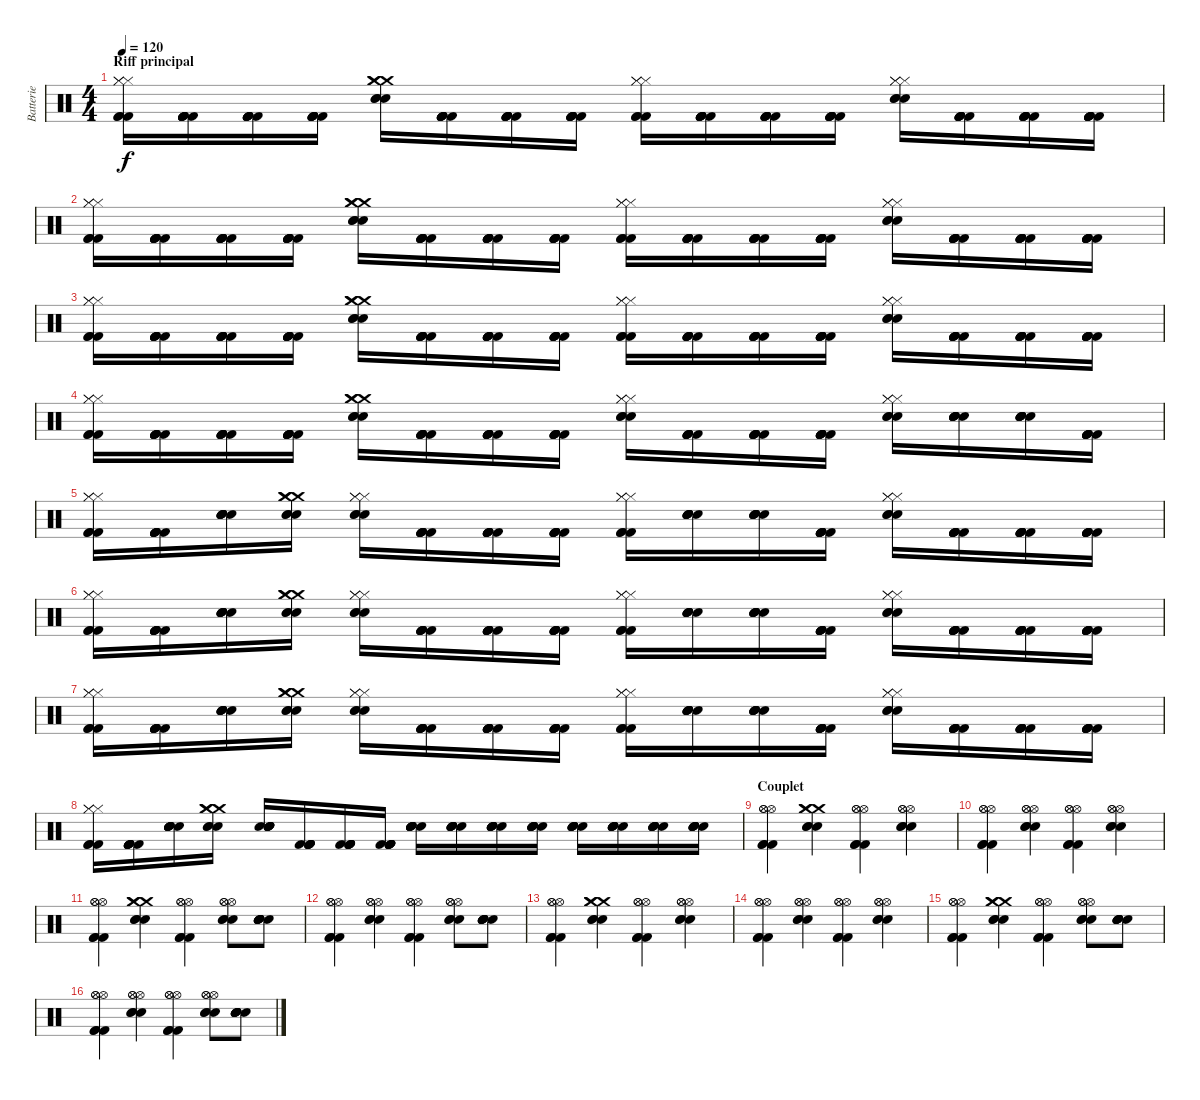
\track ("Batterie" "Batterie") {instrument percussion}
\staff {score}
\articulation defaults
\ts (4 4)
\section ("" "Riff principal")
\tempo 120
\clef neutral
\ks c
("Hi-Hat (closed)" "Hi-Hat (closed)" "Hi-Hat (closed)" "Kick (hit) 2" "Kick (hit) 2" "Kick (hit) 2").16{dy f} ("Kick (hit) 2" "Kick (hit) 2" "Kick (hit) 2" "Kick (hit) 2" "Kick (hit) 2" "Kick (hit) 2").16 ("Kick (hit) 2" "Kick (hit) 2" "Kick (hit) 2" "Kick (hit) 2" "Kick (hit) 2" "Kick (hit) 2").16 ("Kick (hit) 2" "Kick (hit) 2" "Kick (hit) 2" "Kick (hit) 2" "Kick (hit) 2" "Kick (hit) 2").16 ("Crash medium (hit)" "Crash medium (hit)" "Crash medium (hit)" "Snare (hit) 2" "Snare (hit) 2" "Snare (hit) 2").16 ("Kick (hit) 2" "Kick (hit) 2" "Kick (hit) 2" "Kick (hit) 2" "Kick (hit) 2" "Kick (hit) 2").16 ("Kick (hit) 2" "Kick (hit) 2" "Kick (hit) 2" "Kick (hit) 2" "Kick (hit) 2" "Kick (hit) 2").16 ("Kick (hit) 2" "Kick (hit) 2" "Kick (hit) 2" "Kick (hit) 2" "Kick (hit) 2" "Kick (hit) 2").16 ("Kick (hit) 2" "Hi-Hat (closed)" "Hi-Hat (closed)" "Hi-Hat (closed)" "Kick (hit) 2" "Kick (hit) 2").16 ("Kick (hit) 2" "Kick (hit) 2" "Kick (hit) 2" "Kick (hit) 2" "Kick (hit) 2" "Kick (hit) 2").16 ("Kick (hit) 2" "Kick (hit) 2" "Kick (hit) 2" "Kick (hit) 2" "Kick (hit) 2" "Kick (hit) 2").16 ("Kick (hit) 2" "Kick (hit) 2" "Kick (hit) 2" "Kick (hit) 2" "Kick (hit) 2" "Kick (hit) 2").16 ("Snare (hit) 2" "Snare (hit) 2" "Snare (hit) 2" "Hi-Hat (closed)" "Hi-Hat (closed)" "Hi-Hat (closed)").16 ("Kick (hit) 2" "Kick (hit) 2" "Kick (hit) 2" "Kick (hit) 2" "Kick (hit) 2" "Kick (hit) 2").16 ("Kick (hit) 2" "Kick (hit) 2" "Kick (hit) 2" "Kick (hit) 2" "Kick (hit) 2" "Kick (hit) 2").16 ("Kick (hit) 2" "Kick (hit) 2" "Kick (hit) 2" "Kick (hit) 2" "Kick (hit) 2" "Kick (hit) 2").16 |
("Hi-Hat (closed)" "Hi-Hat (closed)" "Hi-Hat (closed)" "Kick (hit) 2" "Kick (hit) 2" "Kick (hit) 2").16 ("Kick (hit) 2" "Kick (hit) 2" "Kick (hit) 2" "Kick (hit) 2" "Kick (hit) 2" "Kick (hit) 2").16 ("Kick (hit) 2" "Kick (hit) 2" "Kick (hit) 2" "Kick (hit) 2" "Kick (hit) 2" "Kick (hit) 2").16 ("Kick (hit) 2" "Kick (hit) 2" "Kick (hit) 2" "Kick (hit) 2" "Kick (hit) 2" "Kick (hit) 2").16 ("Crash medium (hit)" "Crash medium (hit)" "Crash medium (hit)" "Snare (hit) 2" "Snare (hit) 2" "Snare (hit) 2").16 ("Kick (hit) 2" "Kick (hit) 2" "Kick (hit) 2" "Kick (hit) 2" "Kick (hit) 2" "Kick (hit) 2").16 ("Kick (hit) 2" "Kick (hit) 2" "Kick (hit) 2" "Kick (hit) 2" "Kick (hit) 2" "Kick (hit) 2").16 ("Kick (hit) 2" "Kick (hit) 2" "Kick (hit) 2" "Kick (hit) 2" "Kick (hit) 2" "Kick (hit) 2").16 ("Kick (hit) 2" "Hi-Hat (closed)" "Hi-Hat (closed)" "Hi-Hat (closed)" "Kick (hit) 2" "Kick (hit) 2").16 ("Kick (hit) 2" "Kick (hit) 2" "Kick (hit) 2" "Kick (hit) 2" "Kick (hit) 2" "Kick (hit) 2").16 ("Kick (hit) 2" "Kick (hit) 2" "Kick (hit) 2" "Kick (hit) 2" "Kick (hit) 2" "Kick (hit) 2").16 ("Kick (hit) 2" "Kick (hit) 2" "Kick (hit) 2" "Kick (hit) 2" "Kick (hit) 2" "Kick (hit) 2").16 ("Snare (hit) 2" "Snare (hit) 2" "Snare (hit) 2" "Hi-Hat (closed)" "Hi-Hat (closed)" "Hi-Hat (closed)").16 ("Kick (hit) 2" "Kick (hit) 2" "Kick (hit) 2" "Kick (hit) 2" "Kick (hit) 2" "Kick (hit) 2").16 ("Kick (hit) 2" "Kick (hit) 2" "Kick (hit) 2" "Kick (hit) 2" "Kick (hit) 2" "Kick (hit) 2").16 ("Kick (hit) 2" "Kick (hit) 2" "Kick (hit) 2" "Kick (hit) 2" "Kick (hit) 2" "Kick (hit) 2").16 |
("Hi-Hat (closed)" "Hi-Hat (closed)" "Hi-Hat (closed)" "Kick (hit) 2" "Kick (hit) 2" "Kick (hit) 2").16 ("Kick (hit) 2" "Kick (hit) 2" "Kick (hit) 2" "Kick (hit) 2" "Kick (hit) 2" "Kick (hit) 2").16 ("Kick (hit) 2" "Kick (hit) 2" "Kick (hit) 2" "Kick (hit) 2" "Kick (hit) 2" "Kick (hit) 2").16 ("Kick (hit) 2" "Kick (hit) 2" "Kick (hit) 2" "Kick (hit) 2" "Kick (hit) 2" "Kick (hit) 2").16 ("Crash medium (hit)" "Crash medium (hit)" "Crash medium (hit)" "Snare (hit) 2" "Snare (hit) 2" "Snare (hit) 2").16 ("Kick (hit) 2" "Kick (hit) 2" "Kick (hit) 2" "Kick (hit) 2" "Kick (hit) 2" "Kick (hit) 2").16 ("Kick (hit) 2" "Kick (hit) 2" "Kick (hit) 2" "Kick (hit) 2" "Kick (hit) 2" "Kick (hit) 2").16 ("Kick (hit) 2" "Kick (hit) 2" "Kick (hit) 2" "Kick (hit) 2" "Kick (hit) 2" "Kick (hit) 2").16 ("Kick (hit) 2" "Hi-Hat (closed)" "Hi-Hat (closed)" "Hi-Hat (closed)" "Kick (hit) 2" "Kick (hit) 2").16 ("Kick (hit) 2" "Kick (hit) 2" "Kick (hit) 2" "Kick (hit) 2" "Kick (hit) 2" "Kick (hit) 2").16 ("Kick (hit) 2" "Kick (hit) 2" "Kick (hit) 2" "Kick (hit) 2" "Kick (hit) 2" "Kick (hit) 2").16 ("Kick (hit) 2" "Kick (hit) 2" "Kick (hit) 2" "Kick (hit) 2" "Kick (hit) 2" "Kick (hit) 2").16 ("Snare (hit) 2" "Snare (hit) 2" "Snare (hit) 2" "Hi-Hat (closed)" "Hi-Hat (closed)" "Hi-Hat (closed)").16 ("Kick (hit) 2" "Kick (hit) 2" "Kick (hit) 2" "Kick (hit) 2" "Kick (hit) 2" "Kick (hit) 2").16 ("Kick (hit) 2" "Kick (hit) 2" "Kick (hit) 2" "Kick (hit) 2" "Kick (hit) 2" "Kick (hit) 2").16 ("Kick (hit) 2" "Kick (hit) 2" "Kick (hit) 2" "Kick (hit) 2" "Kick (hit) 2" "Kick (hit) 2").16 |
("Hi-Hat (closed)" "Hi-Hat (closed)" "Hi-Hat (closed)" "Kick (hit) 2" "Kick (hit) 2" "Kick (hit) 2").16 ("Kick (hit) 2" "Kick (hit) 2" "Kick (hit) 2" "Kick (hit) 2" "Kick (hit) 2" "Kick (hit) 2").16 ("Kick (hit) 2" "Kick (hit) 2" "Kick (hit) 2" "Kick (hit) 2" "Kick (hit) 2" "Kick (hit) 2").16 ("Kick (hit) 2" "Kick (hit) 2" "Kick (hit) 2" "Kick (hit) 2" "Kick (hit) 2" "Kick (hit) 2").16 ("Crash medium (hit)" "Crash medium (hit)" "Crash medium (hit)" "Snare (hit) 2" "Snare (hit) 2" "Snare (hit) 2").16 ("Kick (hit) 2" "Kick (hit) 2" "Kick (hit) 2" "Kick (hit) 2" "Kick (hit) 2" "Kick (hit) 2").16 ("Kick (hit) 2" "Kick (hit) 2" "Kick (hit) 2" "Kick (hit) 2" "Kick (hit) 2" "Kick (hit) 2").16 ("Kick (hit) 2" "Kick (hit) 2" "Kick (hit) 2" "Kick (hit) 2" "Kick (hit) 2" "Kick (hit) 2").16 ("Snare (hit) 2" "Hi-Hat (closed)" "Hi-Hat (closed)" "Hi-Hat (closed)" "Snare (hit) 2" "Snare (hit) 2").16 ("Kick (hit) 2" "Kick (hit) 2" "Kick (hit) 2" "Kick (hit) 2" "Kick (hit) 2" "Kick (hit) 2").16 ("Kick (hit) 2" "Kick (hit) 2" "Kick (hit) 2" "Kick (hit) 2" "Kick (hit) 2" "Kick (hit) 2").16 ("Kick (hit) 2" "Kick (hit) 2" "Kick (hit) 2" "Kick (hit) 2" "Kick (hit) 2" "Kick (hit) 2").16 ("Snare (hit) 2" "Snare (hit) 2" "Snare (hit) 2" "Hi-Hat (closed)" "Hi-Hat (closed)" "Hi-Hat (closed)").16 ("Snare (hit) 2" "Snare (hit) 2" "Snare (hit) 2" "Snare (hit) 2" "Snare (hit) 2" "Snare (hit) 2").16 ("Snare (hit) 2" "Snare (hit) 2" "Snare (hit) 2" "Snare (hit) 2" "Snare (hit) 2" "Snare (hit) 2").16 ("Kick (hit) 2" "Kick (hit) 2" "Kick (hit) 2" "Kick (hit) 2" "Kick (hit) 2" "Kick (hit) 2").16 |
("Hi-Hat (closed)" "Hi-Hat (closed)" "Hi-Hat (closed)" "Kick (hit) 2" "Kick (hit) 2" "Kick (hit) 2").16 ("Kick (hit) 2" "Kick (hit) 2" "Kick (hit) 2" "Kick (hit) 2" "Kick (hit) 2" "Kick (hit) 2").16 ("Snare (hit) 2" "Snare (hit) 2" "Snare (hit) 2" "Snare (hit) 2" "Snare (hit) 2" "Snare (hit) 2").16 ("Crash medium (hit)" "Crash medium (hit)" "Crash medium (hit)" "Snare (hit) 2" "Snare (hit) 2" "Snare (hit) 2").16 ("Hi-Hat (closed)" "Hi-Hat (closed)" "Hi-Hat (closed)" "Snare (hit) 2" "Snare (hit) 2" "Snare (hit) 2").16 ("Kick (hit) 2" "Kick (hit) 2" "Kick (hit) 2" "Kick (hit) 2" "Kick (hit) 2" "Kick (hit) 2").16 ("Kick (hit) 2" "Kick (hit) 2" "Kick (hit) 2" "Kick (hit) 2" "Kick (hit) 2" "Kick (hit) 2").16 ("Kick (hit) 2" "Kick (hit) 2" "Kick (hit) 2" "Kick (hit) 2" "Kick (hit) 2" "Kick (hit) 2").16 ("Kick (hit) 2" "Hi-Hat (closed)" "Hi-Hat (closed)" "Hi-Hat (closed)" "Kick (hit) 2" "Kick (hit) 2").16 ("Snare (hit) 2" "Snare (hit) 2" "Snare (hit) 2" "Snare (hit) 2" "Snare (hit) 2" "Snare (hit) 2").16 ("Snare (hit) 2" "Snare (hit) 2" "Snare (hit) 2" "Snare (hit) 2" "Snare (hit) 2" "Snare (hit) 2").16 ("Kick (hit) 2" "Kick (hit) 2" "Kick (hit) 2" "Kick (hit) 2" "Kick (hit) 2" "Kick (hit) 2").16 ("Snare (hit) 2" "Snare (hit) 2" "Snare (hit) 2" "Hi-Hat (closed)" "Hi-Hat (closed)" "Hi-Hat (closed)").16 ("Kick (hit) 2" "Kick (hit) 2" "Kick (hit) 2" "Kick (hit) 2" "Kick (hit) 2" "Kick (hit) 2").16 ("Kick (hit) 2" "Kick (hit) 2" "Kick (hit) 2" "Kick (hit) 2" "Kick (hit) 2" "Kick (hit) 2").16 ("Kick (hit) 2" "Kick (hit) 2" "Kick (hit) 2" "Kick (hit) 2" "Kick (hit) 2" "Kick (hit) 2").16 |
("Hi-Hat (closed)" "Hi-Hat (closed)" "Hi-Hat (closed)" "Kick (hit) 2" "Kick (hit) 2" "Kick (hit) 2").16 ("Kick (hit) 2" "Kick (hit) 2" "Kick (hit) 2" "Kick (hit) 2" "Kick (hit) 2" "Kick (hit) 2").16 ("Snare (hit) 2" "Snare (hit) 2" "Snare (hit) 2" "Snare (hit) 2" "Snare (hit) 2" "Snare (hit) 2").16 ("Crash medium (hit)" "Crash medium (hit)" "Crash medium (hit)" "Snare (hit) 2" "Snare (hit) 2" "Snare (hit) 2").16 ("Hi-Hat (closed)" "Hi-Hat (closed)" "Hi-Hat (closed)" "Snare (hit) 2" "Snare (hit) 2" "Snare (hit) 2").16 ("Kick (hit) 2" "Kick (hit) 2" "Kick (hit) 2" "Kick (hit) 2" "Kick (hit) 2" "Kick (hit) 2").16 ("Kick (hit) 2" "Kick (hit) 2" "Kick (hit) 2" "Kick (hit) 2" "Kick (hit) 2" "Kick (hit) 2").16 ("Kick (hit) 2" "Kick (hit) 2" "Kick (hit) 2" "Kick (hit) 2" "Kick (hit) 2" "Kick (hit) 2").16 ("Kick (hit) 2" "Hi-Hat (closed)" "Hi-Hat (closed)" "Hi-Hat (closed)" "Kick (hit) 2" "Kick (hit) 2").16 ("Snare (hit) 2" "Snare (hit) 2" "Snare (hit) 2" "Snare (hit) 2" "Snare (hit) 2" "Snare (hit) 2").16 ("Snare (hit) 2" "Snare (hit) 2" "Snare (hit) 2" "Snare (hit) 2" "Snare (hit) 2" "Snare (hit) 2").16 ("Kick (hit) 2" "Kick (hit) 2" "Kick (hit) 2" "Kick (hit) 2" "Kick (hit) 2" "Kick (hit) 2").16 ("Snare (hit) 2" "Snare (hit) 2" "Snare (hit) 2" "Hi-Hat (closed)" "Hi-Hat (closed)" "Hi-Hat (closed)").16 ("Kick (hit) 2" "Kick (hit) 2" "Kick (hit) 2" "Kick (hit) 2" "Kick (hit) 2" "Kick (hit) 2").16 ("Kick (hit) 2" "Kick (hit) 2" "Kick (hit) 2" "Kick (hit) 2" "Kick (hit) 2" "Kick (hit) 2").16 ("Kick (hit) 2" "Kick (hit) 2" "Kick (hit) 2" "Kick (hit) 2" "Kick (hit) 2" "Kick (hit) 2").16 |
("Hi-Hat (closed)" "Hi-Hat (closed)" "Hi-Hat (closed)" "Kick (hit) 2" "Kick (hit) 2" "Kick (hit) 2").16 ("Kick (hit) 2" "Kick (hit) 2" "Kick (hit) 2" "Kick (hit) 2" "Kick (hit) 2" "Kick (hit) 2").16 ("Snare (hit) 2" "Snare (hit) 2" "Snare (hit) 2" "Snare (hit) 2" "Snare (hit) 2" "Snare (hit) 2").16 ("Crash medium (hit)" "Crash medium (hit)" "Crash medium (hit)" "Snare (hit) 2" "Snare (hit) 2" "Snare (hit) 2").16 ("Hi-Hat (closed)" "Hi-Hat (closed)" "Hi-Hat (closed)" "Snare (hit) 2" "Snare (hit) 2" "Snare (hit) 2").16 ("Kick (hit) 2" "Kick (hit) 2" "Kick (hit) 2" "Kick (hit) 2" "Kick (hit) 2" "Kick (hit) 2").16 ("Kick (hit) 2" "Kick (hit) 2" "Kick (hit) 2" "Kick (hit) 2" "Kick (hit) 2" "Kick (hit) 2").16 ("Kick (hit) 2" "Kick (hit) 2" "Kick (hit) 2" "Kick (hit) 2" "Kick (hit) 2" "Kick (hit) 2").16 ("Kick (hit) 2" "Hi-Hat (closed)" "Hi-Hat (closed)" "Hi-Hat (closed)" "Kick (hit) 2" "Kick (hit) 2").16 ("Snare (hit) 2" "Snare (hit) 2" "Snare (hit) 2" "Snare (hit) 2" "Snare (hit) 2" "Snare (hit) 2").16 ("Snare (hit) 2" "Snare (hit) 2" "Snare (hit) 2" "Snare (hit) 2" "Snare (hit) 2" "Snare (hit) 2").16 ("Kick (hit) 2" "Kick (hit) 2" "Kick (hit) 2" "Kick (hit) 2" "Kick (hit) 2" "Kick (hit) 2").16 ("Snare (hit) 2" "Snare (hit) 2" "Snare (hit) 2" "Hi-Hat (closed)" "Hi-Hat (closed)" "Hi-Hat (closed)").16 ("Kick (hit) 2" "Kick (hit) 2" "Kick (hit) 2" "Kick (hit) 2" "Kick (hit) 2" "Kick (hit) 2").16 ("Kick (hit) 2" "Kick (hit) 2" "Kick (hit) 2" "Kick (hit) 2" "Kick (hit) 2" "Kick (hit) 2").16 ("Kick (hit) 2" "Kick (hit) 2" "Kick (hit) 2" "Kick (hit) 2" "Kick (hit) 2" "Kick (hit) 2").16 |
("Hi-Hat (closed)" "Hi-Hat (closed)" "Hi-Hat (closed)" "Kick (hit) 2" "Kick (hit) 2" "Kick (hit) 2").16 ("Kick (hit) 2" "Kick (hit) 2" "Kick (hit) 2" "Kick (hit) 2" "Kick (hit) 2" "Kick (hit) 2").16 ("Snare (hit) 2" "Snare (hit) 2" "Snare (hit) 2" "Snare (hit) 2" "Snare (hit) 2" "Snare (hit) 2").16 ("Snare (hit) 2" "Crash medium (hit)" "Crash medium (hit)" "Crash medium (hit)" "Snare (hit) 2" "Snare (hit) 2").16 ("Snare (hit) 2" "Snare (hit) 2" "Snare (hit) 2" "Snare (hit) 2" "Snare (hit) 2" "Snare (hit) 2").16 ("Kick (hit) 2" "Kick (hit) 2" "Kick (hit) 2" "Kick (hit) 2" "Kick (hit) 2" "Kick (hit) 2").16 ("Kick (hit) 2" "Kick (hit) 2" "Kick (hit) 2" "Kick (hit) 2" "Kick (hit) 2" "Kick (hit) 2").16 ("Kick (hit) 2" "Kick (hit) 2" "Kick (hit) 2" "Kick (hit) 2" "Kick (hit) 2" "Kick (hit) 2").16 ("Snare (hit) 2" "Snare (hit) 2" "Snare (hit) 2" "Snare (hit) 2" "Snare (hit) 2" "Snare (hit) 2").16 ("Snare (hit) 2" "Snare (hit) 2" "Snare (hit) 2" "Snare (hit) 2" "Snare (hit) 2" "Snare (hit) 2").16 ("Snare (hit) 2" "Snare (hit) 2" "Snare (hit) 2" "Snare (hit) 2" "Snare (hit) 2" "Snare (hit) 2").16 ("Snare (hit) 2" "Snare (hit) 2" "Snare (hit) 2" "Snare (hit) 2" "Snare (hit) 2" "Snare (hit) 2").16 ("Snare (hit) 2" "Snare (hit) 2" "Snare (hit) 2" "Snare (hit) 2" "Snare (hit) 2" "Snare (hit) 2").16 ("Snare (hit) 2" "Snare (hit) 2" "Snare (hit) 2" "Snare (hit) 2" "Snare (hit) 2" "Snare (hit) 2").16 ("Snare (hit) 2" "Snare (hit) 2" "Snare (hit) 2" "Snare (hit) 2" "Snare (hit) 2" "Snare (hit) 2").16 ("Snare (hit) 2" "Snare (hit) 2" "Snare (hit) 2" "Snare (hit) 2" "Snare (hit) 2" "Snare (hit) 2").16 |
\section ("" "Couplet")
("Hi-Hat (open)" "Hi-Hat (open)" "Hi-Hat (open)" "Kick (hit) 2" "Kick (hit) 2" "Kick (hit) 2").4 ("Crash medium (hit)" "Crash medium (hit)" "Crash medium (hit)" "Snare (hit) 2" "Snare (hit) 2" "Snare (hit) 2").4 ("Kick (hit) 2" "Kick (hit) 2" "Hi-Hat (open)" "Hi-Hat (open)" "Hi-Hat (open)" "Kick (hit) 2").4 ("Hi-Hat (open)" "Hi-Hat (open)" "Snare (hit) 2" "Snare (hit) 2" "Snare (hit) 2" "Hi-Hat (open)").4 |
("Hi-Hat (open)" "Hi-Hat (open)" "Hi-Hat (open)" "Kick (hit) 2" "Kick (hit) 2" "Kick (hit) 2").4 ("Hi-Hat (open)" "Hi-Hat (open)" "Hi-Hat (open)" "Snare (hit) 2" "Snare (hit) 2" "Snare (hit) 2").4 ("Kick (hit) 2" "Kick (hit) 2" "Hi-Hat (open)" "Hi-Hat (open)" "Hi-Hat (open)" "Kick (hit) 2").4 ("Hi-Hat (open)" "Hi-Hat (open)" "Snare (hit) 2" "Snare (hit) 2" "Snare (hit) 2" "Hi-Hat (open)").4 |
("Hi-Hat (open)" "Hi-Hat (open)" "Hi-Hat (open)" "Kick (hit) 2" "Kick (hit) 2" "Kick (hit) 2").4 ("Crash medium (hit)" "Crash medium (hit)" "Crash medium (hit)" "Snare (hit) 2" "Snare (hit) 2" "Snare (hit) 2").4 ("Kick (hit) 2" "Kick (hit) 2" "Hi-Hat (open)" "Hi-Hat (open)" "Hi-Hat (open)" "Kick (hit) 2").4 ("Hi-Hat (open)" "Hi-Hat (open)" "Snare (hit) 2" "Snare (hit) 2" "Snare (hit) 2" "Hi-Hat (open)").8 ("Snare (hit) 2" "Snare (hit) 2" "Snare (hit) 2" "Snare (hit) 2" "Snare (hit) 2" "Snare (hit) 2").8 |
("Hi-Hat (open)" "Hi-Hat (open)" "Hi-Hat (open)" "Kick (hit) 2" "Kick (hit) 2" "Kick (hit) 2").4 ("Hi-Hat (open)" "Hi-Hat (open)" "Hi-Hat (open)" "Snare (hit) 2" "Snare (hit) 2" "Snare (hit) 2").4 ("Kick (hit) 2" "Kick (hit) 2" "Hi-Hat (open)" "Hi-Hat (open)" "Hi-Hat (open)" "Kick (hit) 2").4 ("Hi-Hat (open)" "Hi-Hat (open)" "Snare (hit) 2" "Snare (hit) 2" "Snare (hit) 2" "Hi-Hat (open)").8 ("Snare (hit) 2" "Snare (hit) 2" "Snare (hit) 2" "Snare (hit) 2" "Snare (hit) 2" "Snare (hit) 2").8 |
("Hi-Hat (open)" "Hi-Hat (open)" "Hi-Hat (open)" "Kick (hit) 2" "Kick (hit) 2" "Kick (hit) 2").4 ("Crash medium (hit)" "Crash medium (hit)" "Crash medium (hit)" "Snare (hit) 2" "Snare (hit) 2" "Snare (hit) 2").4 ("Kick (hit) 2" "Kick (hit) 2" "Hi-Hat (open)" "Hi-Hat (open)" "Hi-Hat (open)" "Kick (hit) 2").4 ("Hi-Hat (open)" "Hi-Hat (open)" "Snare (hit) 2" "Snare (hit) 2" "Snare (hit) 2" "Hi-Hat (open)").4 |
("Hi-Hat (open)" "Hi-Hat (open)" "Hi-Hat (open)" "Kick (hit) 2" "Kick (hit) 2" "Kick (hit) 2").4 ("Hi-Hat (open)" "Hi-Hat (open)" "Hi-Hat (open)" "Snare (hit) 2" "Snare (hit) 2" "Snare (hit) 2").4 ("Kick (hit) 2" "Kick (hit) 2" "Hi-Hat (open)" "Hi-Hat (open)" "Hi-Hat (open)" "Kick (hit) 2").4 ("Hi-Hat (open)" "Hi-Hat (open)" "Snare (hit) 2" "Snare (hit) 2" "Snare (hit) 2" "Hi-Hat (open)").4 |
("Hi-Hat (open)" "Hi-Hat (open)" "Hi-Hat (open)" "Kick (hit) 2" "Kick (hit) 2" "Kick (hit) 2").4 ("Crash medium (hit)" "Crash medium (hit)" "Crash medium (hit)" "Snare (hit) 2" "Snare (hit) 2" "Snare (hit) 2").4 ("Kick (hit) 2" "Kick (hit) 2" "Hi-Hat (open)" "Hi-Hat (open)" "Hi-Hat (open)" "Kick (hit) 2").4 ("Hi-Hat (open)" "Hi-Hat (open)" "Snare (hit) 2" "Snare (hit) 2" "Snare (hit) 2" "Hi-Hat (open)").8 ("Snare (hit) 2" "Snare (hit) 2" "Snare (hit) 2" "Snare (hit) 2" "Snare (hit) 2" "Snare (hit) 2").8 |
("Hi-Hat (open)" "Hi-Hat (open)" "Hi-Hat (open)" "Kick (hit) 2" "Kick (hit) 2" "Kick (hit) 2").4 ("Hi-Hat (open)" "Hi-Hat (open)" "Hi-Hat (open)" "Snare (hit) 2" "Snare (hit) 2" "Snare (hit) 2").4 ("Kick (hit) 2" "Kick (hit) 2" "Hi-Hat (open)" "Hi-Hat (open)" "Hi-Hat (open)" "Kick (hit) 2").4 ("Hi-Hat (open)" "Hi-Hat (open)" "Snare (hit) 2" "Snare (hit) 2" "Snare (hit) 2" "Hi-Hat (open)").8 ("Snare (hit) 2" "Snare (hit) 2" "Snare (hit) 2" "Snare (hit) 2" "Snare (hit) 2" "Snare (hit) 2").8
